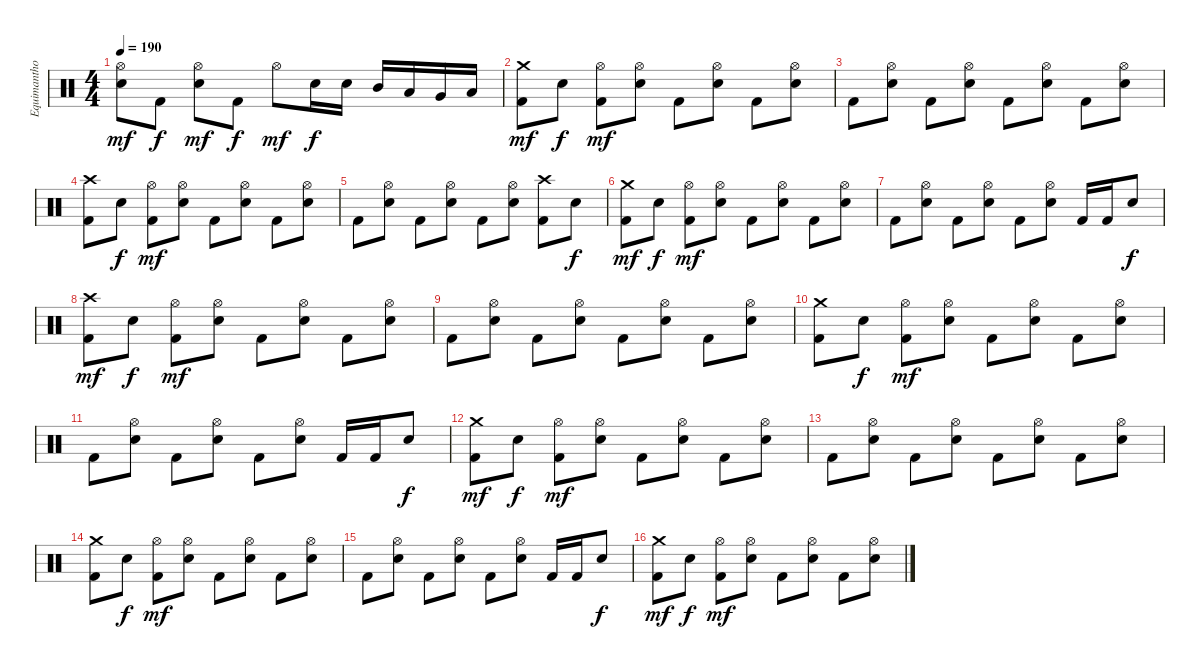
\track ("Equimanthorn" "Equimantho") {instrument percussion}
\staff {score}
\articulation defaults
\ts (4 4)
\tempo 190
\clef neutral
\ks c
("Hi-Hat (open)" "Electric Snare (hit)").8{dy mf} "Kick (hit) 2".8{dy f} ("Hi-Hat (open)" "Electric Snare (hit)").8{dy mf} "Kick (hit) 2".8{dy f} "Hi-Hat (open)".8{dy mf} "Electric Snare (hit)".16{dy f} "Electric Snare (hit)".16 "Mid Tom (hit)".16 "Low Tom (hit)".16 "Very Low Tom (hit)".16 "Low Floor Tom (hit)".16 |
("Crash medium (hit)" "Kick (hit) 2").8{dy mf} "Electric Snare (hit)".8{dy f} ("Hi-Hat (open)" "Kick (hit) 2").8{dy mf} ("Hi-Hat (open)" "Electric Snare (hit)").8 "Kick (hit) 2".8 ("Hi-Hat (open)" "Electric Snare (hit)").8 "Kick (hit) 2".8 ("Hi-Hat (open)" "Electric Snare (hit)").8 |
"Kick (hit) 2".8 ("Hi-Hat (open)" "Electric Snare (hit)").8 "Kick (hit) 2".8 ("Hi-Hat (open)" "Electric Snare (hit)").8 "Kick (hit) 2".8 ("Hi-Hat (open)" "Electric Snare (hit)").8 "Kick (hit) 2".8 ("Hi-Hat (open)" "Electric Snare (hit)").8 |
("Crash high (hit)" "Kick (hit) 2").8 "Electric Snare (hit)".8{dy f} ("Hi-Hat (open)" "Kick (hit) 2").8{dy mf} ("Hi-Hat (open)" "Electric Snare (hit)").8 "Kick (hit) 2".8 ("Hi-Hat (open)" "Electric Snare (hit)").8 "Kick (hit) 2".8 ("Hi-Hat (open)" "Electric Snare (hit)").8 |
"Kick (hit) 2".8 ("Hi-Hat (open)" "Electric Snare (hit)").8 "Kick (hit) 2".8 ("Hi-Hat (open)" "Electric Snare (hit)").8 "Kick (hit) 2".8 ("Hi-Hat (open)" "Electric Snare (hit)").8 ("Crash high (hit)" "Kick (hit) 2").8 "Electric Snare (hit)".8{dy f} |
("Crash medium (hit)" "Kick (hit) 2").8{dy mf} "Electric Snare (hit)".8{dy f} ("Hi-Hat (open)" "Kick (hit) 2").8{dy mf} ("Hi-Hat (open)" "Electric Snare (hit)").8 "Kick (hit) 2".8 ("Hi-Hat (open)" "Electric Snare (hit)").8 "Kick (hit) 2".8 ("Hi-Hat (open)" "Electric Snare (hit)").8 |
"Kick (hit) 2".8 ("Hi-Hat (open)" "Electric Snare (hit)").8 "Kick (hit) 2".8 ("Hi-Hat (open)" "Electric Snare (hit)").8 "Kick (hit) 2".8 ("Hi-Hat (open)" "Electric Snare (hit)").8 "Kick (hit) 2".16 "Kick (hit) 2".16 "Electric Snare (hit)".8{dy f} |
("Crash high (hit)" "Kick (hit) 2").8{dy mf} "Electric Snare (hit)".8{dy f} ("Hi-Hat (open)" "Kick (hit) 2").8{dy mf} ("Hi-Hat (open)" "Electric Snare (hit)").8 "Kick (hit) 2".8 ("Hi-Hat (open)" "Electric Snare (hit)").8 "Kick (hit) 2".8 ("Hi-Hat (open)" "Electric Snare (hit)").8 |
"Kick (hit) 2".8 ("Hi-Hat (open)" "Electric Snare (hit)").8 "Kick (hit) 2".8 ("Hi-Hat (open)" "Electric Snare (hit)").8 "Kick (hit) 2".8 ("Hi-Hat (open)" "Electric Snare (hit)").8 "Kick (hit) 2".8 ("Hi-Hat (open)" "Electric Snare (hit)").8 |
("Crash medium (hit)" "Kick (hit) 2").8 "Electric Snare (hit)".8{dy f} ("Hi-Hat (open)" "Kick (hit) 2").8{dy mf} ("Hi-Hat (open)" "Electric Snare (hit)").8 "Kick (hit) 2".8 ("Hi-Hat (open)" "Electric Snare (hit)").8 "Kick (hit) 2".8 ("Hi-Hat (open)" "Electric Snare (hit)").8 |
"Kick (hit) 2".8 ("Hi-Hat (open)" "Electric Snare (hit)").8 "Kick (hit) 2".8 ("Hi-Hat (open)" "Electric Snare (hit)").8 "Kick (hit) 2".8 ("Hi-Hat (open)" "Electric Snare (hit)").8 "Kick (hit) 2".16 "Kick (hit) 2".16 "Electric Snare (hit)".8{dy f} |
("Crash medium (hit)" "Kick (hit) 2").8{dy mf} "Electric Snare (hit)".8{dy f} ("Hi-Hat (open)" "Kick (hit) 2").8{dy mf} ("Hi-Hat (open)" "Electric Snare (hit)").8 "Kick (hit) 2".8 ("Hi-Hat (open)" "Electric Snare (hit)").8 "Kick (hit) 2".8 ("Hi-Hat (open)" "Electric Snare (hit)").8 |
"Kick (hit) 2".8 ("Hi-Hat (open)" "Electric Snare (hit)").8 "Kick (hit) 2".8 ("Hi-Hat (open)" "Electric Snare (hit)").8 "Kick (hit) 2".8 ("Hi-Hat (open)" "Electric Snare (hit)").8 "Kick (hit) 2".8 ("Hi-Hat (open)" "Electric Snare (hit)").8 |
("Crash medium (hit)" "Kick (hit) 2").8 "Electric Snare (hit)".8{dy f} ("Hi-Hat (open)" "Kick (hit) 2").8{dy mf} ("Hi-Hat (open)" "Electric Snare (hit)").8 "Kick (hit) 2".8 ("Hi-Hat (open)" "Electric Snare (hit)").8 "Kick (hit) 2".8 ("Hi-Hat (open)" "Electric Snare (hit)").8 |
"Kick (hit) 2".8 ("Hi-Hat (open)" "Electric Snare (hit)").8 "Kick (hit) 2".8 ("Hi-Hat (open)" "Electric Snare (hit)").8 "Kick (hit) 2".8 ("Hi-Hat (open)" "Electric Snare (hit)").8 "Kick (hit) 2".16 "Kick (hit) 2".16 "Electric Snare (hit)".8{dy f} |
("Crash medium (hit)" "Kick (hit) 2").8{dy mf} "Electric Snare (hit)".8{dy f} ("Hi-Hat (open)" "Kick (hit) 2").8{dy mf} ("Hi-Hat (open)" "Electric Snare (hit)").8 "Kick (hit) 2".8 ("Hi-Hat (open)" "Electric Snare (hit)").8 "Kick (hit) 2".8 ("Hi-Hat (open)" "Electric Snare (hit)").8
